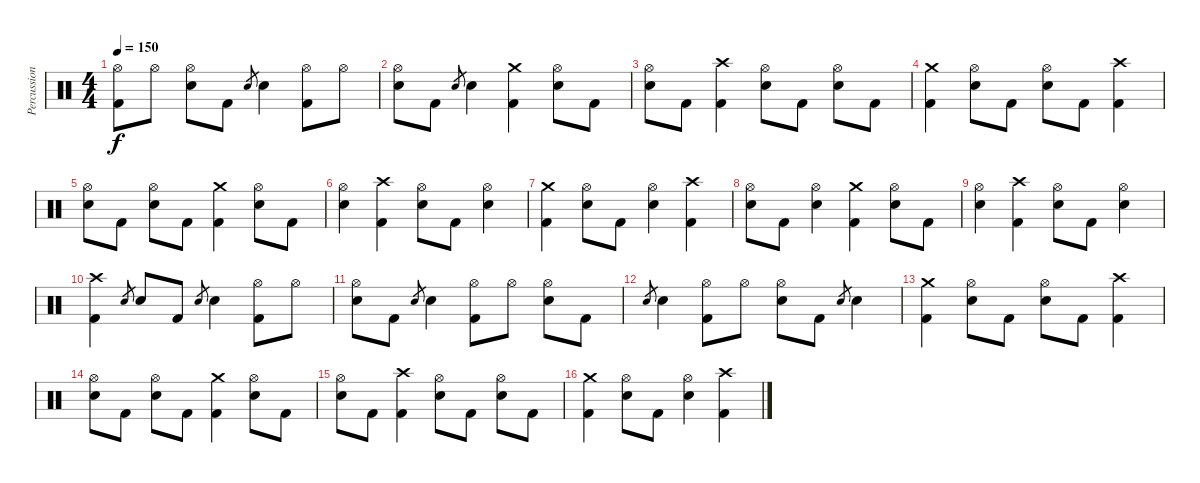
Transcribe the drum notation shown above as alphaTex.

\track ("Percussion" "Percussion") {instrument percussion}
\staff {score}
\articulation defaults
\ts (4 4)
\tempo 150
\clef neutral
\ks c
("Hi-Hat (open)" "Kick (hit) 2").8{dy f} "Hi-Hat (open)".8 ("Hi-Hat (open)" "Electric Snare (hit)").8 "Kick (hit) 2".8 "Electric Snare (hit)".8{gr} "Electric Snare (hit)".4 ("Hi-Hat (open)" "Kick (hit) 2").8 "Hi-Hat (open)".8 |
("Hi-Hat (open)" "Electric Snare (hit)").8 "Kick (hit) 2".8 "Electric Snare (hit)".8{gr} "Electric Snare (hit)".4 ("Crash medium (hit)" "Kick (hit) 2").4 ("Hi-Hat (open)" "Electric Snare (hit)").8 "Kick (hit) 2".8 |
("Hi-Hat (open)" "Electric Snare (hit)").8 "Kick (hit) 2".8 ("Crash high (hit)" "Kick (hit) 2").4 ("Hi-Hat (open)" "Electric Snare (hit)").8 "Kick (hit) 2".8 ("Hi-Hat (open)" "Electric Snare (hit)").8 "Kick (hit) 2".8 |
("Crash medium (hit)" "Kick (hit) 2").4 ("Hi-Hat (open)" "Electric Snare (hit)").8 "Kick (hit) 2".8 ("Hi-Hat (open)" "Electric Snare (hit)").8 "Kick (hit) 2".8 ("Crash high (hit)" "Kick (hit) 2").4 |
("Hi-Hat (open)" "Electric Snare (hit)").8 "Kick (hit) 2".8 ("Hi-Hat (open)" "Electric Snare (hit)").8 "Kick (hit) 2".8 ("Crash medium (hit)" "Kick (hit) 2").4 ("Hi-Hat (open)" "Electric Snare (hit)").8 "Kick (hit) 2".8 |
("Hi-Hat (open)" "Electric Snare (hit)").4 ("Crash high (hit)" "Kick (hit) 2").4 ("Hi-Hat (open)" "Electric Snare (hit)").8 "Kick (hit) 2".8 ("Hi-Hat (open)" "Electric Snare (hit)").4 |
("Crash medium (hit)" "Kick (hit) 2").4 ("Hi-Hat (open)" "Electric Snare (hit)").8 "Kick (hit) 2".8 ("Hi-Hat (open)" "Electric Snare (hit)").4 ("Crash high (hit)" "Kick (hit) 2").4 |
("Hi-Hat (open)" "Electric Snare (hit)").8 "Kick (hit) 2".8 ("Hi-Hat (open)" "Electric Snare (hit)").4 ("Crash medium (hit)" "Kick (hit) 2").4 ("Hi-Hat (open)" "Electric Snare (hit)").8 "Kick (hit) 2".8 |
("Hi-Hat (open)" "Electric Snare (hit)").4 ("Crash high (hit)" "Kick (hit) 2").4 ("Hi-Hat (open)" "Electric Snare (hit)").8 "Kick (hit) 2".8 ("Hi-Hat (open)" "Electric Snare (hit)").4 |
("Crash high (hit)" "Kick (hit) 2").4 "Electric Snare (hit)".8{gr} "Electric Snare (hit)".8 "Kick (hit) 2".8 "Electric Snare (hit)".8{gr} "Electric Snare (hit)".4 ("Hi-Hat (open)" "Kick (hit) 2").8 "Hi-Hat (open)".8 |
("Hi-Hat (open)" "Electric Snare (hit)").8 "Kick (hit) 2".8 "Electric Snare (hit)".8{gr} "Electric Snare (hit)".4 ("Hi-Hat (open)" "Kick (hit) 2").8 "Hi-Hat (open)".8 ("Hi-Hat (open)" "Electric Snare (hit)").8 "Kick (hit) 2".8 |
"Electric Snare (hit)".8{gr} "Electric Snare (hit)".4 ("Hi-Hat (open)" "Kick (hit) 2").8 "Hi-Hat (open)".8 ("Hi-Hat (open)" "Electric Snare (hit)").8 "Kick (hit) 2".8 "Electric Snare (hit)".8{gr} "Electric Snare (hit)".4 |
("Crash medium (hit)" "Kick (hit) 2").4 ("Hi-Hat (open)" "Electric Snare (hit)").8 "Kick (hit) 2".8 ("Hi-Hat (open)" "Electric Snare (hit)").8 "Kick (hit) 2".8 ("Crash high (hit)" "Kick (hit) 2").4 |
("Hi-Hat (open)" "Electric Snare (hit)").8 "Kick (hit) 2".8 ("Hi-Hat (open)" "Electric Snare (hit)").8 "Kick (hit) 2".8 ("Crash medium (hit)" "Kick (hit) 2").4 ("Hi-Hat (open)" "Electric Snare (hit)").8 "Kick (hit) 2".8 |
("Hi-Hat (open)" "Electric Snare (hit)").8 "Kick (hit) 2".8 ("Crash high (hit)" "Kick (hit) 2").4 ("Hi-Hat (open)" "Electric Snare (hit)").8 "Kick (hit) 2".8 ("Hi-Hat (open)" "Electric Snare (hit)").8 "Kick (hit) 2".8 |
("Crash medium (hit)" "Kick (hit) 2").4 ("Hi-Hat (open)" "Electric Snare (hit)").8 "Kick (hit) 2".8 ("Hi-Hat (open)" "Electric Snare (hit)").4 ("Crash high (hit)" "Kick (hit) 2").4
